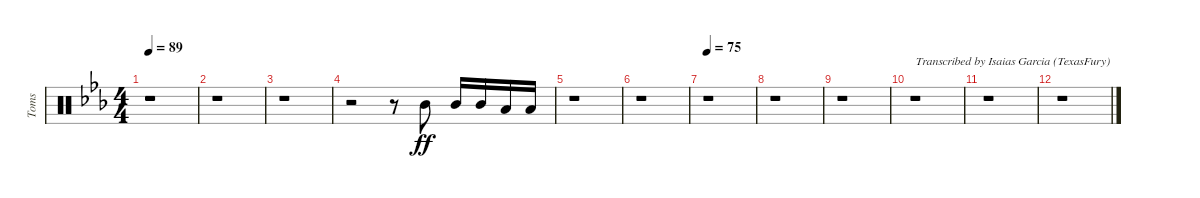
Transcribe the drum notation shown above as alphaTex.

\track ("Toms" "Toms") {instrument percussion}
\staff {score}
\articulation defaults
\ts (4 4)
\tempo 89
\clef neutral
\ks eb
r.1{dy ff} |
r.1 |
r.1 |
r.2 r.8 "Mid Tom (hit)".8 "Mid Tom (hit)".16 "Mid Tom (hit)".16 "Low Tom (hit)".16{balance 5} "Low Tom (hit)".16 |
r.1 |
r.1 |
\tempo 75
r.1 |
r.1 |
r.1 |
r.1{txt "Transcribed by Isaias Garcia (TexasFury)"} |
r.1 |
r.1
